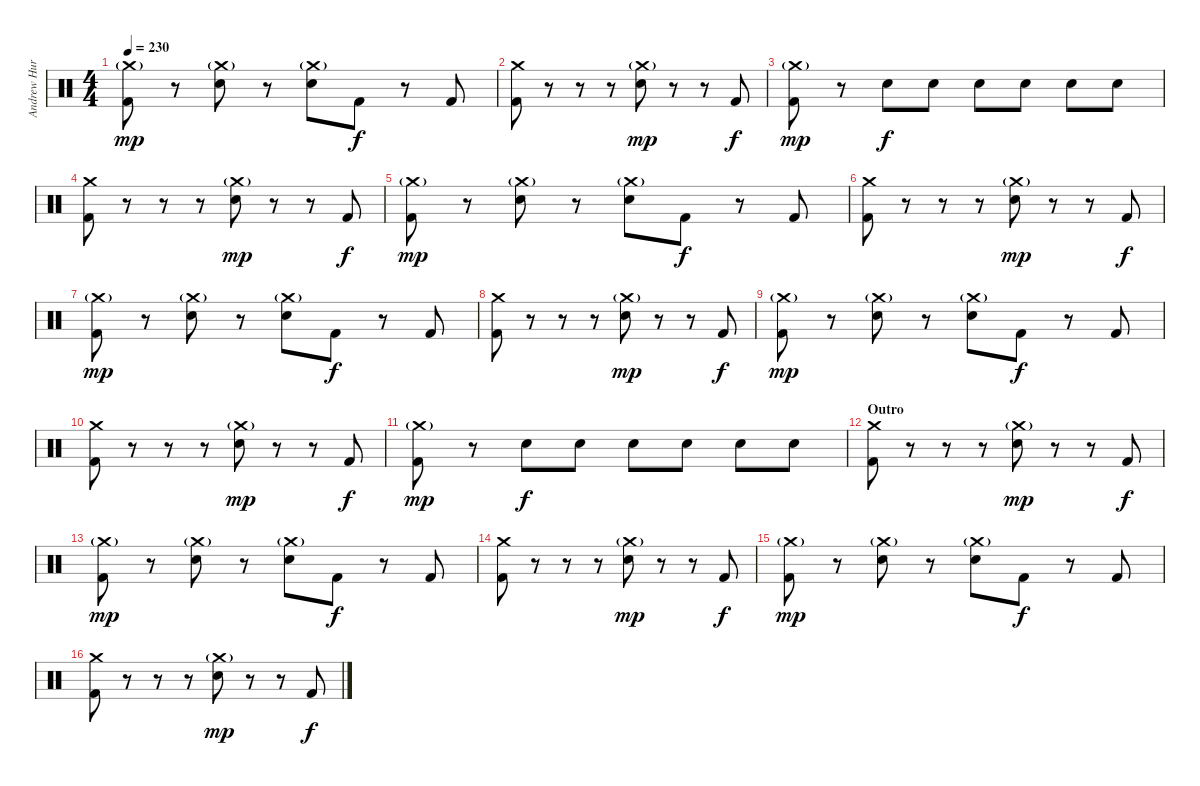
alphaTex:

\track ("Andrew Hurley (Drums)" "Andrew Hur") {instrument percussion}
\staff {score}
\articulation defaults
\ts (4 4)
\tempo 230
\clef neutral
\ks c
("Crash medium (hit)"{g} "Kick (hit) 2").8{dy mp} r.8 ("Crash medium (hit)"{g} "Electric Snare (hit)").8 r.8 ("Crash medium (hit)"{g} "Electric Snare (hit)").8 "Kick (hit) 2".8{dy f} r.8 "Kick (hit) 2".8 |
("Crash medium (hit)" "Kick (hit) 2").8 r.8 r.8 r.8 ("Crash medium (hit)"{g} "Electric Snare (hit)").8{dy mp} r.8 r.8 "Kick (hit) 2".8{dy f} |
("Crash medium (hit)"{g} "Kick (hit) 2").8{dy mp} r.8 "Electric Snare (hit)".8{dy f} "Electric Snare (hit)".8 "Electric Snare (hit)".8 "Electric Snare (hit)".8 "Electric Snare (hit)".8 "Electric Snare (hit)".8 |
("Crash medium (hit)" "Kick (hit) 2").8 r.8 r.8 r.8 ("Crash medium (hit)"{g} "Electric Snare (hit)").8{dy mp} r.8 r.8 "Kick (hit) 2".8{dy f} |
("Crash medium (hit)"{g} "Kick (hit) 2").8{dy mp} r.8 ("Crash medium (hit)"{g} "Electric Snare (hit)").8 r.8 ("Crash medium (hit)"{g} "Electric Snare (hit)").8 "Kick (hit) 2".8{dy f} r.8 "Kick (hit) 2".8 |
("Crash medium (hit)" "Kick (hit) 2").8 r.8 r.8 r.8 ("Crash medium (hit)"{g} "Electric Snare (hit)").8{dy mp} r.8 r.8 "Kick (hit) 2".8{dy f} |
("Crash medium (hit)"{g} "Kick (hit) 2").8{dy mp} r.8 ("Crash medium (hit)"{g} "Electric Snare (hit)").8 r.8 ("Crash medium (hit)"{g} "Electric Snare (hit)").8 "Kick (hit) 2".8{dy f} r.8 "Kick (hit) 2".8 |
("Crash medium (hit)" "Kick (hit) 2").8 r.8 r.8 r.8 ("Crash medium (hit)"{g} "Electric Snare (hit)").8{dy mp} r.8 r.8 "Kick (hit) 2".8{dy f} |
("Crash medium (hit)"{g} "Kick (hit) 2").8{dy mp} r.8 ("Crash medium (hit)"{g} "Electric Snare (hit)").8 r.8 ("Crash medium (hit)"{g} "Electric Snare (hit)").8 "Kick (hit) 2".8{dy f} r.8 "Kick (hit) 2".8 |
("Crash medium (hit)" "Kick (hit) 2").8 r.8 r.8 r.8 ("Crash medium (hit)"{g} "Electric Snare (hit)").8{dy mp} r.8 r.8 "Kick (hit) 2".8{dy f} |
("Crash medium (hit)"{g} "Kick (hit) 2").8{dy mp} r.8 "Electric Snare (hit)".8{dy f} "Electric Snare (hit)".8 "Electric Snare (hit)".8 "Electric Snare (hit)".8 "Electric Snare (hit)".8 "Electric Snare (hit)".8 |
\section ("" "Outro")
("Crash medium (hit)" "Kick (hit) 2").8 r.8 r.8 r.8 ("Crash medium (hit)"{g} "Electric Snare (hit)").8{dy mp} r.8 r.8 "Kick (hit) 2".8{dy f} |
("Crash medium (hit)"{g} "Kick (hit) 2").8{dy mp} r.8 ("Crash medium (hit)"{g} "Electric Snare (hit)").8 r.8 ("Crash medium (hit)"{g} "Electric Snare (hit)").8 "Kick (hit) 2".8{dy f} r.8 "Kick (hit) 2".8 |
("Crash medium (hit)" "Kick (hit) 2").8 r.8 r.8 r.8 ("Crash medium (hit)"{g} "Electric Snare (hit)").8{dy mp} r.8 r.8 "Kick (hit) 2".8{dy f} |
("Crash medium (hit)"{g} "Kick (hit) 2").8{dy mp} r.8 ("Crash medium (hit)"{g} "Electric Snare (hit)").8 r.8 ("Crash medium (hit)"{g} "Electric Snare (hit)").8 "Kick (hit) 2".8{dy f} r.8 "Kick (hit) 2".8 |
("Crash medium (hit)" "Kick (hit) 2").8 r.8 r.8 r.8 ("Crash medium (hit)"{g} "Electric Snare (hit)").8{dy mp} r.8 r.8 "Kick (hit) 2".8{dy f}
